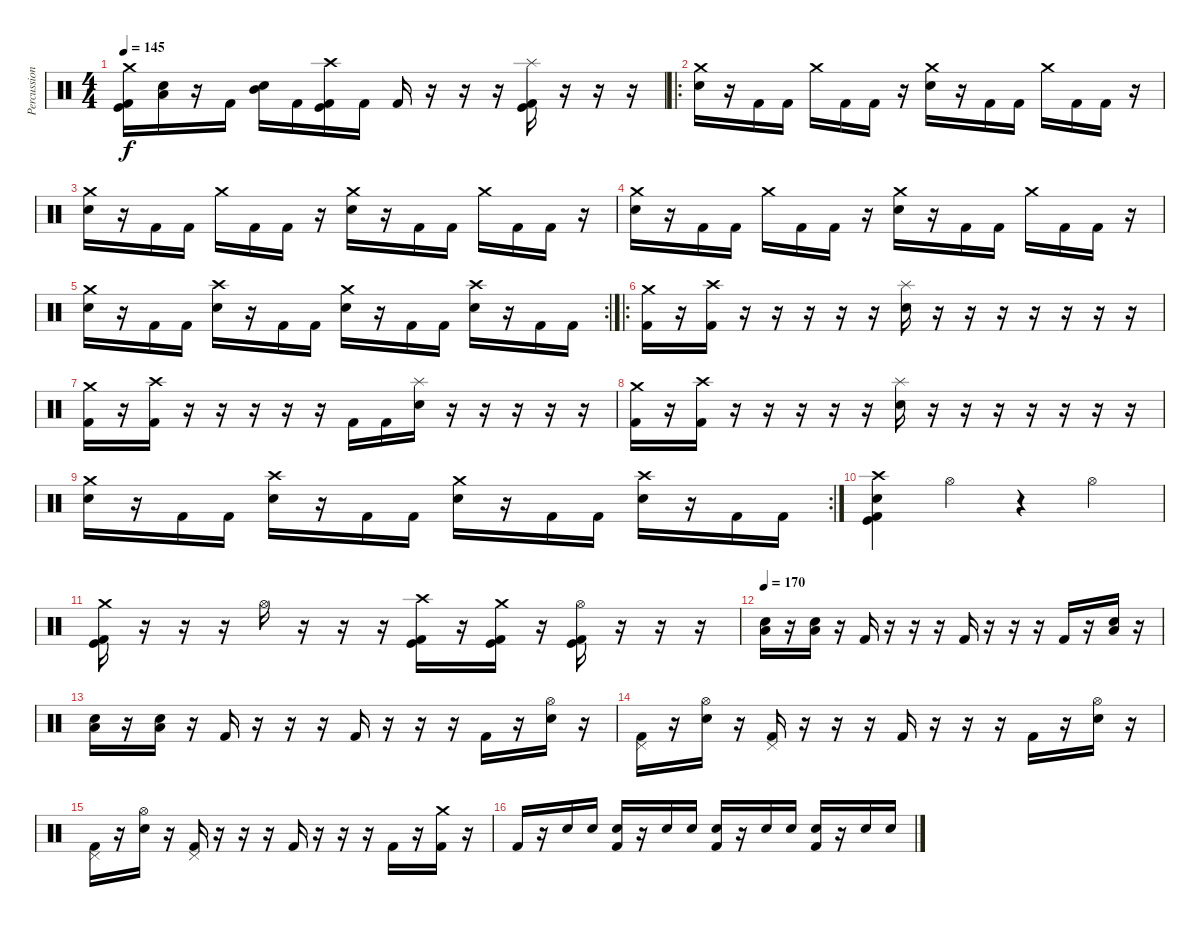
\track ("Percussion" "Percussion") {instrument percussion}
\staff {score}
\articulation defaults
\ts (4 4)
\tempo 145
\clef neutral
\ks c
("Crash medium (hit)" "Kick (hit)" "Kick (hit) 2").16{dy f} ("Low Tom (hit)" "Electric Snare (hit)").16 r.16 "Kick (hit) 2".16 ("Mid Tom (hit)" "Electric Snare (hit)").16 "Kick (hit) 2".16 ("Crash high (hit)" "Kick (hit)" "Kick (hit) 2").16 "Kick (hit) 2".16 "Kick (hit) 2".16 r.16 r.16 r.16 ("Splash (hit)" "Kick (hit)" "Kick (hit) 2").16 r.16 r.16 r.16 |
\ro
("Crash medium (hit)" "Electric Snare (hit)").16 r.16 "Kick (hit) 2".16 "Kick (hit) 2".16 "Crash medium (hit)".16 "Kick (hit) 2".16 "Kick (hit) 2".16 r.16 ("Crash medium (hit)" "Electric Snare (hit)").16 r.16 "Kick (hit) 2".16 "Kick (hit) 2".16 "Crash medium (hit)".16 "Kick (hit) 2".16 "Kick (hit) 2".16 r.16 |
("Crash medium (hit)" "Electric Snare (hit)").16 r.16 "Kick (hit) 2".16 "Kick (hit) 2".16 "Crash medium (hit)".16 "Kick (hit) 2".16 "Kick (hit) 2".16 r.16 ("Crash medium (hit)" "Electric Snare (hit)").16 r.16 "Kick (hit) 2".16 "Kick (hit) 2".16 "Crash medium (hit)".16 "Kick (hit) 2".16 "Kick (hit) 2".16 r.16 |
("Crash medium (hit)" "Electric Snare (hit)").16 r.16 "Kick (hit) 2".16 "Kick (hit) 2".16 "Crash medium (hit)".16 "Kick (hit) 2".16 "Kick (hit) 2".16 r.16 ("Crash medium (hit)" "Electric Snare (hit)").16 r.16 "Kick (hit) 2".16 "Kick (hit) 2".16 "Crash medium (hit)".16 "Kick (hit) 2".16 "Kick (hit) 2".16 r.16 |
\rc 2
("Crash medium (hit)" "Electric Snare (hit)").16 r.16 "Kick (hit) 2".16 "Kick (hit) 2".16 ("Crash high (hit)" "Electric Snare (hit)").16 r.16 "Kick (hit) 2".16 "Kick (hit) 2".16 ("Crash medium (hit)" "Electric Snare (hit)").16 r.16 "Kick (hit) 2".16 "Kick (hit) 2".16 ("Crash high (hit)" "Electric Snare (hit)").16 r.16 "Kick (hit) 2".16 "Kick (hit) 2".16 |
\ro
("Crash medium (hit)" "Kick (hit) 2").16 r.16 ("Crash high (hit)" "Kick (hit) 2").16 r.16 r.16 r.16 r.16 r.16 ("Electric Snare (hit)" "Splash (hit)").16 r.16 r.16 r.16 r.16 r.16 r.16 r.16 |
("Crash medium (hit)" "Kick (hit) 2").16 r.16 ("Crash high (hit)" "Kick (hit) 2").16 r.16 r.16 r.16 r.16 r.16 "Kick (hit) 2".16 "Kick (hit) 2".16 ("Electric Snare (hit)" "Splash (hit)").16 r.16 r.16 r.16 r.16 r.16 |
("Crash medium (hit)" "Kick (hit) 2").16 r.16 ("Crash high (hit)" "Kick (hit) 2").16 r.16 r.16 r.16 r.16 r.16 ("Splash (hit)" "Electric Snare (hit)").16 r.16 r.16 r.16 r.16 r.16 r.16 r.16 |
\rc 2
("Crash medium (hit)" "Electric Snare (hit)").16 r.16 "Kick (hit) 2".16 "Kick (hit) 2".16 ("Crash high (hit)" "Electric Snare (hit)").16 r.16 "Kick (hit) 2".16 "Kick (hit) 2".16 ("Crash medium (hit)" "Electric Snare (hit)").16 r.16 "Kick (hit) 2".16 "Kick (hit) 2".16 ("Crash high (hit)" "Electric Snare (hit)").16 r.16 "Kick (hit) 2".16 "Kick (hit) 2".16 |
("Crash high (hit)" "Electric Snare (hit)" "Kick (hit)" "Kick (hit) 2").4 "Hi-Hat (open)".4 r.4 "Hi-Hat (open)".4 |
("Crash medium (hit)" "Kick (hit)" "Kick (hit) 2").16 r.16 r.16 r.16 "Hi-Hat (open)".16 r.16 r.16 r.16 ("Crash high (hit)" "Kick (hit)" "Kick (hit) 2").16 r.16 ("Crash medium (hit)" "Kick (hit)" "Kick (hit) 2").16 r.16 ("Hi-Hat (open)" "Kick (hit)" "Kick (hit) 2").16 r.16 r.16 r.16 |
\tempo 170
("Electric Snare (hit)" "Low Floor Tom (hit)").16 r.16 ("Electric Snare (hit)" "Low Floor Tom (hit)").16 r.16 "Kick (hit) 2".16 r.16 r.16 r.16 "Kick (hit) 2".16 r.16 r.16 r.16 "Kick (hit) 2".16 r.16 ("Electric Snare (hit)" "Low Floor Tom (hit)").16 r.16 |
("Electric Snare (hit)" "Low Floor Tom (hit)").16 r.16 ("Electric Snare (hit)" "Low Floor Tom (hit)").16 r.16 "Kick (hit) 2".16 r.16 r.16 r.16 "Kick (hit) 2".16 r.16 r.16 r.16 "Kick (hit) 2".16 r.16 ("Hi-Hat (open)" "Electric Snare (hit)").16 r.16 |
("Pedal Hi-Hat (hit)" "Kick (hit) 2").16 r.16 ("Hi-Hat (open)" "Electric Snare (hit)").16 r.16 ("Pedal Hi-Hat (hit)" "Kick (hit) 2").16 r.16 r.16 r.16 "Kick (hit) 2".16 r.16 r.16 r.16 "Kick (hit) 2".16 r.16 ("Hi-Hat (open)" "Electric Snare (hit)").16 r.16 |
("Pedal Hi-Hat (hit)" "Kick (hit) 2").16 r.16 ("Hi-Hat (open)" "Electric Snare (hit)").16 r.16 ("Pedal Hi-Hat (hit)" "Kick (hit) 2").16 r.16 r.16 r.16 "Kick (hit) 2".16 r.16 r.16 r.16 "Kick (hit) 2".16 r.16 ("Crash medium (hit)" "Kick (hit) 2").16 r.16 |
"Kick (hit) 2".16 r.16 "Electric Snare (hit)".16 "Electric Snare (hit)".16 ("Electric Snare (hit)" "Kick (hit) 2").16 r.16 "Electric Snare (hit)".16 "Electric Snare (hit)".16 ("Electric Snare (hit)" "Kick (hit) 2").16 r.16 "Electric Snare (hit)".16 "Electric Snare (hit)".16 ("Electric Snare (hit)" "Kick (hit) 2").16 r.16 "Electric Snare (hit)".16 "Electric Snare (hit)".16
